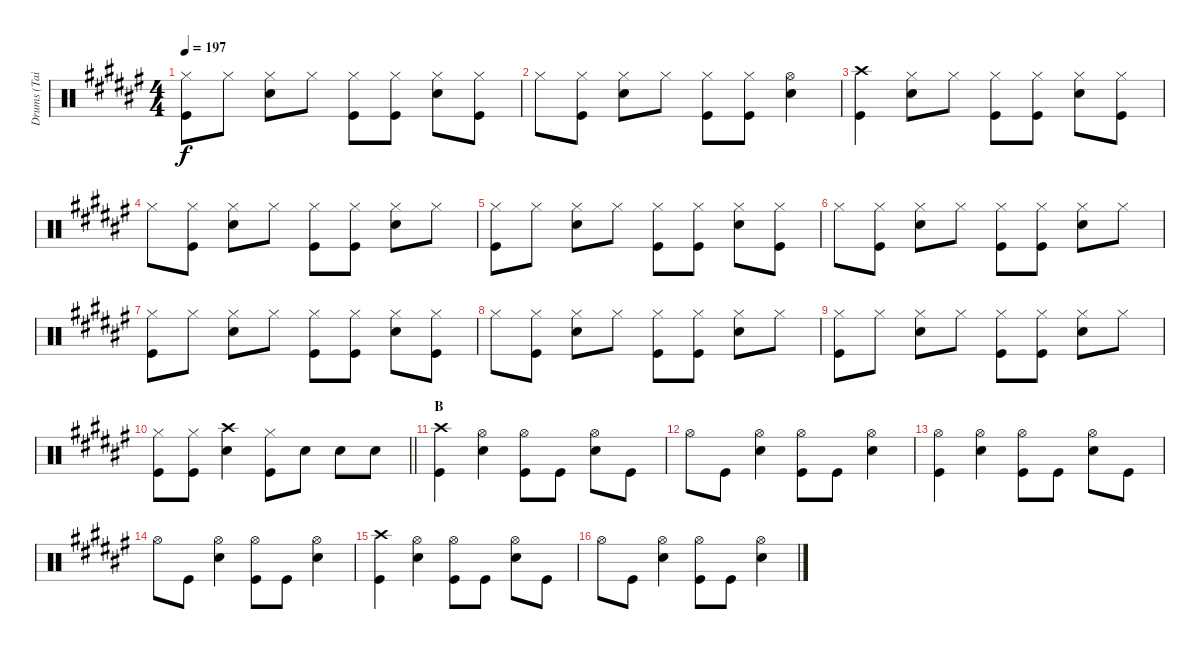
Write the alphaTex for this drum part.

\track ("Drums (Tainaka Ritsu)" "Drums (Tai") {instrument percussion}
\staff {score}
\articulation defaults
\ts (4 4)
\tempo 197
\clef neutral
\ks f#
("Hi-Hat (closed)" "Kick (hit)").8{dy f} "Hi-Hat (closed)".8 ("Hi-Hat (closed)" "Snare (hit) 2").8 "Hi-Hat (closed)".8 ("Hi-Hat (closed)" "Kick (hit)").8 ("Hi-Hat (closed)" "Kick (hit)").8 ("Hi-Hat (closed)" "Snare (hit) 2").8 ("Hi-Hat (closed)" "Kick (hit)").8 |
"Hi-Hat (closed)".8 ("Hi-Hat (closed)" "Kick (hit)").8 ("Hi-Hat (closed)" "Snare (hit) 2").8 "Hi-Hat (closed)".8 ("Hi-Hat (closed)" "Kick (hit)").8 ("Hi-Hat (closed)" "Kick (hit)").8 ("Hi-Hat (open)" "Snare (hit) 2").4 |
("Crash high (hit)" "Kick (hit)").4 ("Hi-Hat (closed)" "Snare (hit) 2").8 "Hi-Hat (closed)".8 ("Hi-Hat (closed)" "Kick (hit)").8 ("Hi-Hat (closed)" "Kick (hit)").8 ("Hi-Hat (closed)" "Snare (hit) 2").8 ("Hi-Hat (closed)" "Kick (hit)").8 |
"Hi-Hat (closed)".8 ("Hi-Hat (closed)" "Kick (hit)").8 ("Hi-Hat (closed)" "Snare (hit) 2").8 "Hi-Hat (closed)".8 ("Hi-Hat (closed)" "Kick (hit)").8 ("Hi-Hat (closed)" "Kick (hit)").8 ("Hi-Hat (closed)" "Snare (hit) 2").8 "Hi-Hat (closed)".8 |
("Hi-Hat (closed)" "Kick (hit)").8 "Hi-Hat (closed)".8 ("Hi-Hat (closed)" "Snare (hit) 2").8 "Hi-Hat (closed)".8 ("Hi-Hat (closed)" "Kick (hit)").8 ("Hi-Hat (closed)" "Kick (hit)").8 ("Hi-Hat (closed)" "Snare (hit) 2").8 ("Hi-Hat (closed)" "Kick (hit)").8 |
"Hi-Hat (closed)".8 ("Hi-Hat (closed)" "Kick (hit)").8 ("Hi-Hat (closed)" "Snare (hit) 2").8 "Hi-Hat (closed)".8 ("Hi-Hat (closed)" "Kick (hit)").8 ("Hi-Hat (closed)" "Kick (hit)").8 ("Hi-Hat (closed)" "Snare (hit) 2").8 "Hi-Hat (closed)".8 |
("Hi-Hat (closed)" "Kick (hit)").8 "Hi-Hat (closed)".8 ("Hi-Hat (closed)" "Snare (hit) 2").8 "Hi-Hat (closed)".8 ("Hi-Hat (closed)" "Kick (hit)").8 ("Hi-Hat (closed)" "Kick (hit)").8 ("Hi-Hat (closed)" "Snare (hit) 2").8 ("Hi-Hat (closed)" "Kick (hit)").8 |
"Hi-Hat (closed)".8 ("Hi-Hat (closed)" "Kick (hit)").8 ("Hi-Hat (closed)" "Snare (hit) 2").8 "Hi-Hat (closed)".8 ("Hi-Hat (closed)" "Kick (hit)").8 ("Hi-Hat (closed)" "Kick (hit)").8 ("Hi-Hat (closed)" "Snare (hit) 2").8 "Hi-Hat (closed)".8 |
("Hi-Hat (closed)" "Kick (hit)").8 "Hi-Hat (closed)".8 ("Hi-Hat (closed)" "Snare (hit) 2").8 "Hi-Hat (closed)".8 ("Hi-Hat (closed)" "Kick (hit)").8 ("Hi-Hat (closed)" "Kick (hit)").8 ("Hi-Hat (closed)" "Snare (hit) 2").8 "Hi-Hat (closed)".8 |
\barLineRight lightlight
("Hi-Hat (closed)" "Kick (hit)").8 ("Hi-Hat (closed)" "Kick (hit)").8 ("Crash high (hit)" "Snare (hit) 2").4 ("Hi-Hat (closed)" "Kick (hit)").8 "Snare (hit) 2".8 "Snare (hit) 2".8 "Snare (hit) 2".8 |
\section ("" "B")
("Crash high (hit)" "Kick (hit)").4 ("Hi-Hat (open)" "Snare (hit) 2").4 ("Hi-Hat (open)" "Kick (hit)").8 "Kick (hit)".8 ("Hi-Hat (open)" "Snare (hit) 2").8 "Kick (hit)".8 |
"Hi-Hat (open)".8 "Kick (hit)".8 ("Hi-Hat (open)" "Snare (hit) 2").4 ("Hi-Hat (open)" "Kick (hit)").8 "Kick (hit)".8 ("Hi-Hat (open)" "Snare (hit) 2").4 |
("Hi-Hat (open)" "Kick (hit)").4 ("Hi-Hat (open)" "Snare (hit) 2").4 ("Hi-Hat (open)" "Kick (hit)").8 "Kick (hit)".8 ("Hi-Hat (open)" "Snare (hit) 2").8 "Kick (hit)".8 |
"Hi-Hat (open)".8 "Kick (hit)".8 ("Hi-Hat (open)" "Snare (hit) 2").4 ("Hi-Hat (open)" "Kick (hit)").8 "Kick (hit)".8 ("Hi-Hat (open)" "Snare (hit) 2").4 |
("Crash high (hit)" "Kick (hit)").4 ("Hi-Hat (open)" "Snare (hit) 2").4 ("Hi-Hat (open)" "Kick (hit)").8 "Kick (hit)".8 ("Hi-Hat (open)" "Snare (hit) 2").8 "Kick (hit)".8 |
"Hi-Hat (open)".8 "Kick (hit)".8 ("Hi-Hat (open)" "Snare (hit) 2").4 ("Hi-Hat (open)" "Kick (hit)").8 "Kick (hit)".8 ("Hi-Hat (open)" "Snare (hit) 2").4
